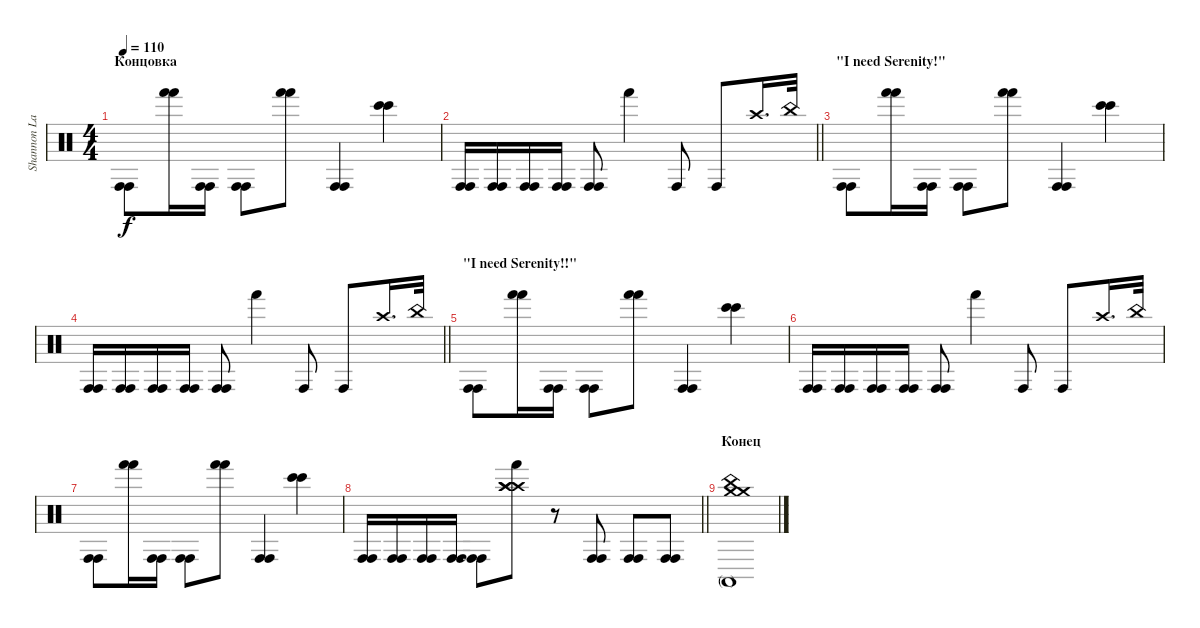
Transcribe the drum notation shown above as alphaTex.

\track ("Shannon Larkin [Percussion 1]" "Shannon La") {instrument percussion}
\staff {score}
\articulation defaults
\ts (4 4)
\section ("" "Концовка")
\tempo 110
\clef neutral
\ks c
("Conga high (hit)" "Conga high (hit)").8{dy f} ("Hand (hit)" "Hand (hit)").16 ("Conga high (hit)" "Conga high (hit)").16 ("Conga high (hit)" "Conga high (hit)").8 ("Hand (hit)" "Hand (hit)").8 ("Conga high (hit)" "Conga high (hit)").4 ("Bongo High (hit)" "Bongo High (hit)").4 |
\barLineRight lightlight
("Conga high (hit)" "Conga high (hit)").16 ("Conga high (hit)" "Conga high (hit)").16 ("Conga high (hit)" "Conga high (hit)").16 ("Conga high (hit)" "Conga high (hit)").16 ("Conga high (hit)" "Conga high (hit)").8 "Hand (hit)".4 "Conga high (hit)".8 "Conga high (hit)".8 "Crash high (hit)".16{d} "China (hit)".32 |
\section ("" "\"I need Serenity!\"")
("Conga high (hit)" "Conga high (hit)").8 ("Hand (hit)" "Hand (hit)").16 ("Conga high (hit)" "Conga high (hit)").16 ("Conga high (hit)" "Conga high (hit)").8 ("Hand (hit)" "Hand (hit)").8 ("Conga high (hit)" "Conga high (hit)").4 ("Bongo High (hit)" "Bongo High (hit)").4 |
\barLineRight lightlight
("Conga high (hit)" "Conga high (hit)").16 ("Conga high (hit)" "Conga high (hit)").16 ("Conga high (hit)" "Conga high (hit)").16 ("Conga high (hit)" "Conga high (hit)").16 ("Conga high (hit)" "Conga high (hit)").8 "Hand (hit)".4 "Conga high (hit)".8 "Conga high (hit)".8 "Crash high (hit)".16{d} "China (hit)".32 |
\section ("" "\"I need Serenity!!\"")
("Conga high (hit)" "Conga high (hit)").8 ("Hand (hit)" "Hand (hit)").16 ("Conga high (hit)" "Conga high (hit)").16 ("Conga high (hit)" "Conga high (hit)").8 ("Hand (hit)" "Hand (hit)").8 ("Conga high (hit)" "Conga high (hit)").4 ("Bongo High (hit)" "Bongo High (hit)").4 |
("Conga high (hit)" "Conga high (hit)").16 ("Conga high (hit)" "Conga high (hit)").16 ("Conga high (hit)" "Conga high (hit)").16 ("Conga high (hit)" "Conga high (hit)").16 ("Conga high (hit)" "Conga high (hit)").8 "Hand (hit)".4 "Conga high (hit)".8 "Conga high (hit)".8 "Crash high (hit)".16{d} "China (hit)".32 |
("Conga high (hit)" "Conga high (hit)").8 ("Hand (hit)" "Hand (hit)").16 ("Conga high (hit)" "Conga high (hit)").16 ("Conga high (hit)" "Conga high (hit)").8 ("Hand (hit)" "Hand (hit)").8 ("Conga high (hit)" "Conga high (hit)").4 ("Bongo High (hit)" "Bongo High (hit)").4 |
\barLineRight lightlight
("Conga high (hit)" "Conga high (hit)").16 ("Conga high (hit)" "Conga high (hit)").16 ("Conga high (hit)" "Conga high (hit)").16 ("Conga high (hit)" "Conga high (hit)").16 ("Conga high (hit)" "Conga high (hit)").8 ("Hand (hit)" "Crash high (hit)" "Crash high (hit)" "Crash high (hit)").8 r.8 ("Conga high (hit)" "Conga high (hit)").8 ("Conga high (hit)" "Conga high (hit)").8 ("Conga high (hit)" "Conga high (hit)").8 |
\section ("" "Конец")
("Crash medium (hit)" "Conga high (mute)" "China (hit)" "Crash medium (hit)").1
